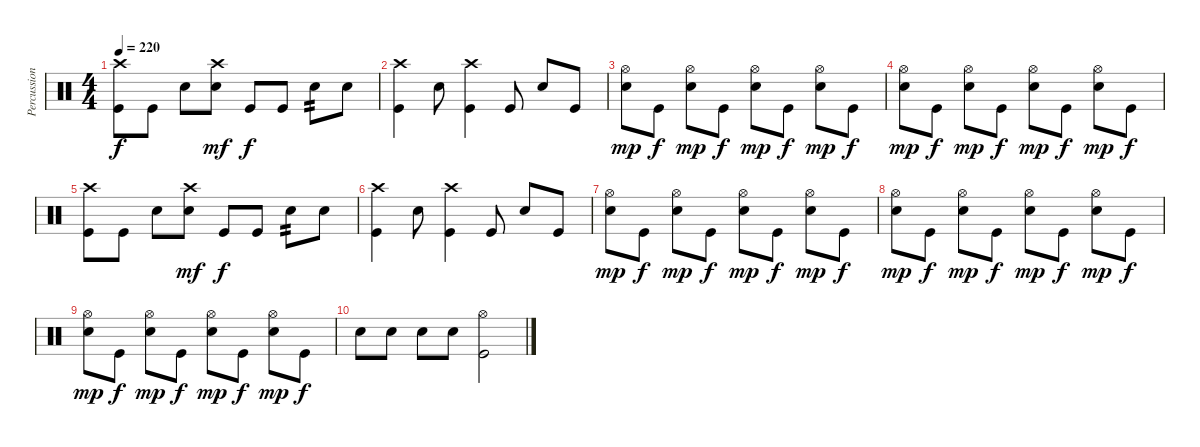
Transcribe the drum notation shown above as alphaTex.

\track ("Percussion" "Percussion") {instrument percussion}
\staff {score}
\articulation defaults
\ts (4 4)
\tempo 220
\clef neutral
\ks c
("Crash high (hit)" "Kick (hit)").8{dy f} "Kick (hit)".8 "Electric Snare (hit)".8 ("Crash high (hit)" "Electric Snare (hit)").8{dy mf} "Kick (hit)".8{dy f} "Kick (hit)".8 "Electric Snare (hit)".8{tp 2} "Electric Snare (hit)".8 |
("Crash high (hit)" "Kick (hit)").4 "Electric Snare (hit)".8 ("Crash high (hit)" "Kick (hit)").4 "Kick (hit)".8 "Electric Snare (hit)".8 "Kick (hit)".8 |
("Hi-Hat (open)" "Electric Snare (hit)").8{dy mp} "Kick (hit)".8{dy f} ("Hi-Hat (open)" "Electric Snare (hit)").8{dy mp} "Kick (hit)".8{dy f} ("Hi-Hat (open)" "Electric Snare (hit)").8{dy mp} "Kick (hit)".8{dy f} ("Hi-Hat (open)" "Electric Snare (hit)").8{dy mp} "Kick (hit)".8{dy f} |
("Hi-Hat (open)" "Electric Snare (hit)").8{dy mp} "Kick (hit)".8{dy f} ("Hi-Hat (open)" "Electric Snare (hit)").8{dy mp} "Kick (hit)".8{dy f} ("Hi-Hat (open)" "Electric Snare (hit)").8{dy mp} "Kick (hit)".8{dy f} ("Hi-Hat (open)" "Electric Snare (hit)").8{dy mp} "Kick (hit)".8{dy f} |
("Crash high (hit)" "Kick (hit)").8 "Kick (hit)".8 "Electric Snare (hit)".8 ("Crash high (hit)" "Electric Snare (hit)").8{dy mf} "Kick (hit)".8{dy f} "Kick (hit)".8 "Electric Snare (hit)".8{tp 2} "Electric Snare (hit)".8 |
("Crash high (hit)" "Kick (hit)").4 "Electric Snare (hit)".8 ("Crash high (hit)" "Kick (hit)").4 "Kick (hit)".8 "Electric Snare (hit)".8 "Kick (hit)".8 |
("Hi-Hat (open)" "Electric Snare (hit)").8{dy mp} "Kick (hit)".8{dy f} ("Hi-Hat (open)" "Electric Snare (hit)").8{dy mp} "Kick (hit)".8{dy f} ("Hi-Hat (open)" "Electric Snare (hit)").8{dy mp} "Kick (hit)".8{dy f} ("Hi-Hat (open)" "Electric Snare (hit)").8{dy mp} "Kick (hit)".8{dy f} |
("Hi-Hat (open)" "Electric Snare (hit)").8{dy mp} "Kick (hit)".8{dy f} ("Hi-Hat (open)" "Electric Snare (hit)").8{dy mp} "Kick (hit)".8{dy f} ("Hi-Hat (open)" "Electric Snare (hit)").8{dy mp} "Kick (hit)".8{dy f} ("Hi-Hat (open)" "Electric Snare (hit)").8{dy mp} "Kick (hit)".8{dy f} |
("Hi-Hat (open)" "Electric Snare (hit)").8{dy mp} "Kick (hit)".8{dy f} ("Hi-Hat (open)" "Electric Snare (hit)").8{dy mp} "Kick (hit)".8{dy f} ("Hi-Hat (open)" "Electric Snare (hit)").8{dy mp} "Kick (hit)".8{dy f} ("Hi-Hat (open)" "Electric Snare (hit)").8{dy mp} "Kick (hit)".8{dy f} |
"Electric Snare (hit)".8 "Electric Snare (hit)".8 "Electric Snare (hit)".8 "Electric Snare (hit)".8 ("Hi-Hat (open)" "Kick (hit)").2
